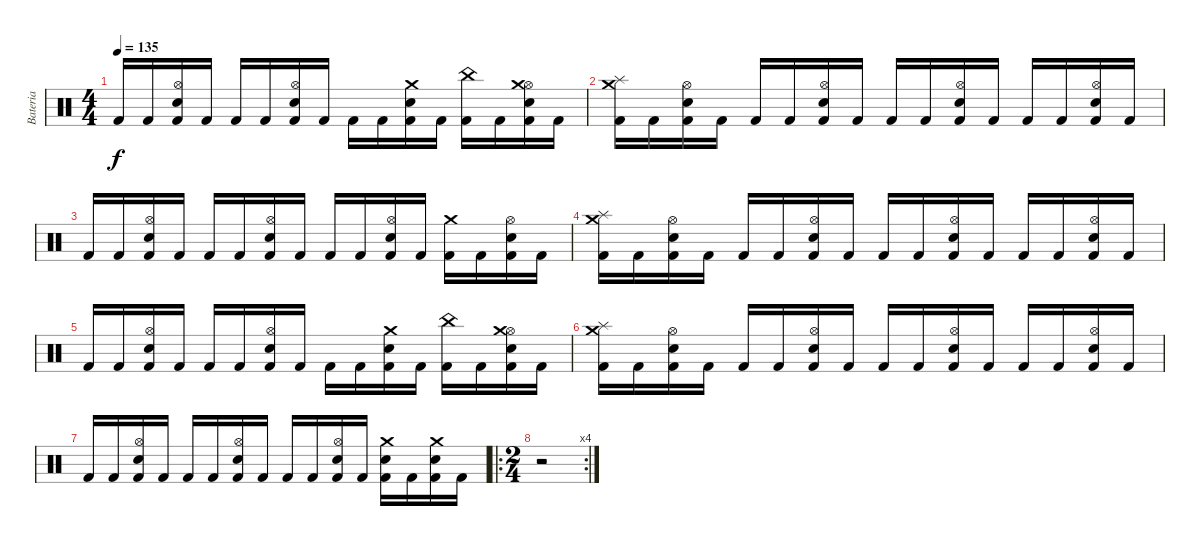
\track ("Bateria" "Bateria") {instrument percussion}
\staff {score}
\articulation defaults
\ts (4 4)
\tempo 135
\clef neutral
\ks c "Kick (hit) 2".16{dy f} "Kick (hit) 2".16
("Hi-Hat (open)" "Snare (hit) 2" "Kick (hit) 2").16 "Kick (hit) 2".16 "Kick (hit) 2".16 "Kick (hit) 2".16 ("Hi-Hat (open)" "Snare (hit) 2" "Kick (hit) 2").16 "Kick (hit) 2".16 "Kick (hit) 2".16 "Kick (hit) 2".16 ("Crash medium (hit)" "Snare (hit) 2" "Kick (hit) 2").16 "Kick (hit) 2".16 ("China (hit)" "Kick (hit) 2").16 "Kick (hit) 2".16 ("Hi-Hat (open)" "Crash medium (hit)" "Snare (hit) 2" "Kick (hit) 2").16 "Kick (hit) 2".16 |
("Crash medium (hit)" "Splash (hit)" "Kick (hit) 2").16 "Kick (hit) 2".16 ("Hi-Hat (open)" "Snare (hit) 2" "Kick (hit) 2").16 "Kick (hit) 2".16 "Kick (hit) 2".16 "Kick (hit) 2".16 ("Hi-Hat (open)" "Snare (hit) 2" "Kick (hit) 2").16 "Kick (hit) 2".16 "Kick (hit) 2".16 "Kick (hit) 2".16 ("Hi-Hat (open)" "Snare (hit) 2" "Kick (hit) 2").16 "Kick (hit) 2".16 "Kick (hit) 2".16 "Kick (hit) 2".16 ("Hi-Hat (open)" "Snare (hit) 2" "Kick (hit) 2").16 "Kick (hit) 2".16 |
"Kick (hit) 2".16 "Kick (hit) 2".16 ("Hi-Hat (open)" "Snare (hit) 2" "Kick (hit) 2").16 "Kick (hit) 2".16 "Kick (hit) 2".16 "Kick (hit) 2".16 ("Hi-Hat (open)" "Snare (hit) 2" "Kick (hit) 2").16 "Kick (hit) 2".16 "Kick (hit) 2".16 "Kick (hit) 2".16 ("Hi-Hat (open)" "Snare (hit) 2" "Kick (hit) 2").16 "Kick (hit) 2".16 ("Crash medium (hit)" "Kick (hit) 2").16 "Kick (hit) 2".16 ("Hi-Hat (open)" "Snare (hit) 2" "Kick (hit) 2").16 "Kick (hit) 2".16 |
("Crash medium (hit)" "Splash (hit)" "Kick (hit) 2").16 "Kick (hit) 2".16 ("Hi-Hat (open)" "Snare (hit) 2" "Kick (hit) 2").16 "Kick (hit) 2".16 "Kick (hit) 2".16 "Kick (hit) 2".16 ("Hi-Hat (open)" "Snare (hit) 2" "Kick (hit) 2").16 "Kick (hit) 2".16 "Kick (hit) 2".16 "Kick (hit) 2".16 ("Hi-Hat (open)" "Snare (hit) 2" "Kick (hit) 2").16 "Kick (hit) 2".16 "Kick (hit) 2".16 "Kick (hit) 2".16 ("Hi-Hat (open)" "Snare (hit) 2" "Kick (hit) 2").16 "Kick (hit) 2".16 |
"Kick (hit) 2".16 "Kick (hit) 2".16 ("Hi-Hat (open)" "Snare (hit) 2" "Kick (hit) 2").16 "Kick (hit) 2".16 "Kick (hit) 2".16 "Kick (hit) 2".16 ("Hi-Hat (open)" "Snare (hit) 2" "Kick (hit) 2").16 "Kick (hit) 2".16 "Kick (hit) 2".16 "Kick (hit) 2".16 ("Crash medium (hit)" "Snare (hit) 2" "Kick (hit) 2").16 "Kick (hit) 2".16 ("China (hit)" "Kick (hit) 2").16 "Kick (hit) 2".16 ("Hi-Hat (open)" "Crash medium (hit)" "Snare (hit) 2" "Kick (hit) 2").16 "Kick (hit) 2".16 |
("Crash medium (hit)" "Splash (hit)" "Kick (hit) 2").16 "Kick (hit) 2".16 ("Hi-Hat (open)" "Snare (hit) 2" "Kick (hit) 2").16 "Kick (hit) 2".16 "Kick (hit) 2".16 "Kick (hit) 2".16 ("Hi-Hat (open)" "Snare (hit) 2" "Kick (hit) 2").16 "Kick (hit) 2".16 "Kick (hit) 2".16 "Kick (hit) 2".16 ("Hi-Hat (open)" "Snare (hit) 2" "Kick (hit) 2").16 "Kick (hit) 2".16 "Kick (hit) 2".16 "Kick (hit) 2".16 ("Hi-Hat (open)" "Snare (hit) 2" "Kick (hit) 2").16 "Kick (hit) 2".16 |
"Kick (hit) 2".16 "Kick (hit) 2".16 ("Hi-Hat (open)" "Snare (hit) 2" "Kick (hit) 2").16 "Kick (hit) 2".16 "Kick (hit) 2".16 "Kick (hit) 2".16 ("Hi-Hat (open)" "Snare (hit) 2" "Kick (hit) 2").16 "Kick (hit) 2".16 "Kick (hit) 2".16 "Kick (hit) 2".16 ("Hi-Hat (open)" "Snare (hit) 2" "Kick (hit) 2").16 "Kick (hit) 2".16 ("Crash medium (hit)" "Snare (hit) 2" "Kick (hit) 2").16 "Kick (hit) 2".16 ("Crash medium (hit)" "Snare (hit) 2" "Kick (hit) 2").16 "Kick (hit) 2".16 |
\ro
\rc 4
\ts (2 4)
r.2
